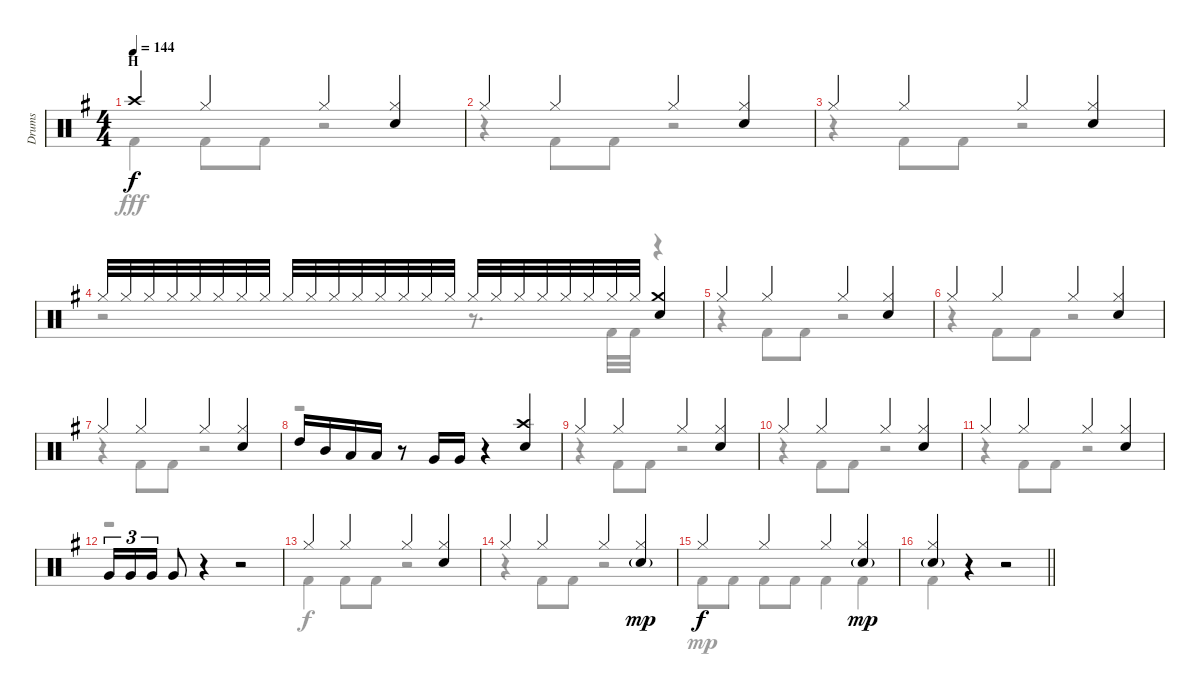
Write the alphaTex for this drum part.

\track ("Drums" "Drums") {instrument percussion}
\staff {score}
\articulation defaults
\voice
\ts (4 4)
\section ("" "H")
\tempo 144
\clef neutral
\ks g "Crash high (hit)".4{dy f} "Hi-Hat (closed)".4 "Hi-Hat (closed)".4
("Hi-Hat (closed)" "Snare (hit) 2").4 |
"Hi-Hat (closed)".4 "Hi-Hat (closed)".4 "Hi-Hat (closed)".4 ("Hi-Hat (closed)" "Snare (hit) 2").4 |
"Hi-Hat (closed)".4 "Hi-Hat (closed)".4 "Hi-Hat (closed)".4 ("Hi-Hat (closed)" "Snare (hit) 2").4 |
"Hi-Hat (closed)".32 "Hi-Hat (closed)".32 "Hi-Hat (closed)".32 "Hi-Hat (closed)".32 "Hi-Hat (closed)".32 "Hi-Hat (closed)".32 "Hi-Hat (closed)".32 "Hi-Hat (closed)".32 "Hi-Hat (closed)".32 "Hi-Hat (closed)".32 "Hi-Hat (closed)".32 "Hi-Hat (closed)".32 "Hi-Hat (closed)".32 "Hi-Hat (closed)".32 "Hi-Hat (closed)".32 "Hi-Hat (closed)".32 "Hi-Hat (closed)".32 "Hi-Hat (closed)".32 "Hi-Hat (closed)".32 "Hi-Hat (closed)".32 "Hi-Hat (closed)".32 "Hi-Hat (closed)".32 "Hi-Hat (closed)".32 "Hi-Hat (closed)".32 ("Crash medium (hit)" "Snare (hit) 2").4 |
"Hi-Hat (closed)".4 "Hi-Hat (closed)".4 "Hi-Hat (closed)".4 ("Hi-Hat (closed)" "Snare (hit) 2").4 |
"Hi-Hat (closed)".4 "Hi-Hat (closed)".4 "Hi-Hat (closed)".4 ("Hi-Hat (closed)" "Snare (hit) 2").4 |
"Hi-Hat (closed)".4 "Hi-Hat (closed)".4 "Hi-Hat (closed)".4 ("Hi-Hat (closed)" "Snare (hit) 2").4 |
"High Tom (hit)".16 "Mid Tom (hit)".16 "Low Tom (hit)".16 "Low Tom (hit)".16 r.8 "Very Low Tom (hit)".16 "Very Low Tom (hit)".16 r.4 ("Crash high (hit)" "Snare (hit) 2").4 |
"Hi-Hat (closed)".4 "Hi-Hat (closed)".4 "Hi-Hat (closed)".4 ("Hi-Hat (closed)" "Snare (hit) 2").4 |
"Hi-Hat (closed)".4 "Hi-Hat (closed)".4 "Hi-Hat (closed)".4 ("Hi-Hat (closed)" "Snare (hit) 2").4 |
"Hi-Hat (closed)".4 "Hi-Hat (closed)".4 "Hi-Hat (closed)".4 ("Hi-Hat (closed)" "Snare (hit) 2").4 |
"Very Low Tom (hit)".16{tu (3 2)} "Very Low Tom (hit)".16{tu (3 2)} "Very Low Tom (hit)".16{tu (3 2)} "Very Low Tom (hit)".8 r.4 r.2 |
"Hi-Hat (closed)".4 "Hi-Hat (closed)".4 "Hi-Hat (closed)".4 ("Hi-Hat (closed)" "Snare (hit) 2").4 |
"Hi-Hat (closed)".4 "Hi-Hat (closed)".4 "Hi-Hat (closed)".4 ("Hi-Hat (closed)" "Snare (hit) 2"{g}).4{dy mp} |
"Hi-Hat (closed)".4{dy f} "Hi-Hat (closed)".4 "Hi-Hat (closed)".4 ("Hi-Hat (closed)" "Snare (hit) 2"{g}).4{dy mp} |
\barLineRight lightlight
("Hi-Hat (closed)" "Snare (hit) 2"{g}).4 r.4 r.2
\voice
\clef neutral
\ottava regular
\simile none
\ks g "Kick (hit) 2".4{dy fff} "Kick (hit) 2".8 "Kick (hit) 2".8
r.2 |
r.4 "Kick (hit) 2".8 "Kick (hit) 2".8 r.2 |
r.4 "Kick (hit) 2".8 "Kick (hit) 2".8 r.2 |
r.2 r.8{d} "Kick (hit) 2".32 "Kick (hit) 2".32 r.4 |
r.4 "Kick (hit) 2".8 "Kick (hit) 2".8 r.2 |
r.4 "Kick (hit) 2".8 "Kick (hit) 2".8 r.2 |
r.4 "Kick (hit) 2".8 "Kick (hit) 2".8 r.2 |
r.1 |
r.4 "Kick (hit) 2".8 "Kick (hit) 2".8 r.2 |
r.4 "Kick (hit) 2".8 "Kick (hit) 2".8 r.2 |
r.4 "Kick (hit) 2".8 "Kick (hit) 2".8 r.2 |
r.1 |
"Kick (hit) 2".4{dy f} "Kick (hit) 2".8 "Kick (hit) 2".8 r.2 |
r.4 "Kick (hit) 2".8 "Kick (hit) 2".8 r.2 |
"Kick (hit) 2".8{dy mp} "Kick (hit) 2".8 "Kick (hit) 2".8 "Kick (hit) 2".8 "Kick (hit) 2".4 "Kick (hit) 2".4 |
\barLineRight lightlight "Kick (hit) 2".4
r.4 r.2
